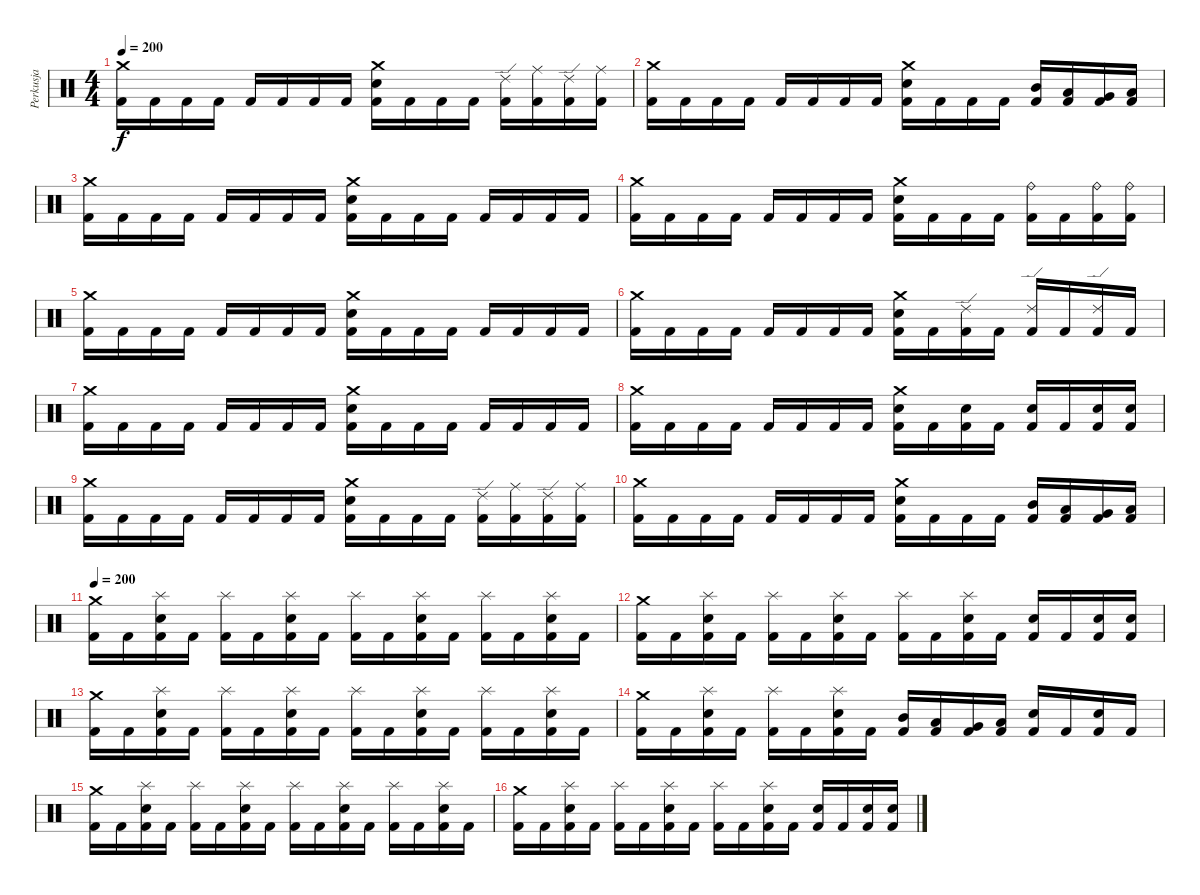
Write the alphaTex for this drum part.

\track ("Perkusja" "Perkusja") {instrument percussion}
\staff {score}
\articulation defaults
\ts (4 4)
\tempo 200
\clef neutral
\ks c
("Crash medium (hit)" "Kick (hit) 2").16{dy f} "Kick (hit) 2".16 "Kick (hit) 2".16 "Kick (hit) 2".16 "Kick (hit) 2".16 "Kick (hit) 2".16 "Kick (hit) 2".16 "Kick (hit) 2".16 ("Crash medium (hit)" "Electric Snare (hit)" "Kick (hit) 2").16 "Kick (hit) 2".16 "Kick (hit) 2".16 "Kick (hit) 2".16 ("Ride (edge) 2" "Kick (hit) 2").16 ("Ride (middle)" "Kick (hit) 2").16 ("Ride (edge) 2" "Kick (hit) 2").16 ("Ride (middle)" "Kick (hit) 2").16 |
("Crash medium (hit)" "Kick (hit) 2").16 "Kick (hit) 2".16 "Kick (hit) 2".16 "Kick (hit) 2".16 "Kick (hit) 2".16 "Kick (hit) 2".16 "Kick (hit) 2".16 "Kick (hit) 2".16 ("Crash medium (hit)" "Electric Snare (hit)" "Kick (hit) 2").16 "Kick (hit) 2".16 "Kick (hit) 2".16 "Kick (hit) 2".16 ("Mid Tom (hit)" "Kick (hit) 2").16 ("Low Tom (hit)" "Kick (hit) 2").16 ("Very Low Tom (hit)" "Kick (hit) 2").16 ("Low Floor Tom (hit)" "Kick (hit) 2").16 |
("Crash medium (hit)" "Kick (hit) 2").16 "Kick (hit) 2".16 "Kick (hit) 2".16 "Kick (hit) 2".16 "Kick (hit) 2".16 "Kick (hit) 2".16 "Kick (hit) 2".16 "Kick (hit) 2".16 ("Crash medium (hit)" "Electric Snare (hit)" "Kick (hit) 2").16 "Kick (hit) 2".16 "Kick (hit) 2".16 "Kick (hit) 2".16 "Kick (hit) 2".16 "Kick (hit) 2".16 "Kick (hit) 2".16 "Kick (hit) 2".16 |
("Crash medium (hit)" "Kick (hit) 2").16 "Kick (hit) 2".16 "Kick (hit) 2".16 "Kick (hit) 2".16 "Kick (hit) 2".16 "Kick (hit) 2".16 "Kick (hit) 2".16 "Kick (hit) 2".16 ("Crash medium (hit)" "Electric Snare (hit)" "Kick (hit) 2").16 "Kick (hit) 2".16 "Kick (hit) 2".16 "Kick (hit) 2".16 ("Ride (bell)" "Kick (hit) 2").16 "Kick (hit) 2".16 ("Ride (bell)" "Kick (hit) 2").16 ("Ride (bell)" "Kick (hit) 2").16 |
("Crash medium (hit)" "Kick (hit) 2").16 "Kick (hit) 2".16 "Kick (hit) 2".16 "Kick (hit) 2".16 "Kick (hit) 2".16 "Kick (hit) 2".16 "Kick (hit) 2".16 "Kick (hit) 2".16 ("Crash medium (hit)" "Electric Snare (hit)" "Kick (hit) 2").16 "Kick (hit) 2".16 "Kick (hit) 2".16 "Kick (hit) 2".16 "Kick (hit) 2".16 "Kick (hit) 2".16 "Kick (hit) 2".16 "Kick (hit) 2".16 |
("Crash medium (hit)" "Kick (hit) 2").16 "Kick (hit) 2".16 "Kick (hit) 2".16 "Kick (hit) 2".16 "Kick (hit) 2".16 "Kick (hit) 2".16 "Kick (hit) 2".16 "Kick (hit) 2".16 ("Crash medium (hit)" "Electric Snare (hit)" "Kick (hit) 2").16 "Kick (hit) 2".16 ("Ride (edge) 2" "Kick (hit) 2").16 "Kick (hit) 2".16 ("Ride (edge) 2" "Kick (hit) 2").16 "Kick (hit) 2".16 ("Ride (edge) 2" "Kick (hit) 2").16 "Kick (hit) 2".16 |
("Crash medium (hit)" "Kick (hit) 2").16 "Kick (hit) 2".16 "Kick (hit) 2".16 "Kick (hit) 2".16 "Kick (hit) 2".16 "Kick (hit) 2".16 "Kick (hit) 2".16 "Kick (hit) 2".16 ("Crash medium (hit)" "Electric Snare (hit)" "Kick (hit) 2").16 "Kick (hit) 2".16 "Kick (hit) 2".16 "Kick (hit) 2".16 "Kick (hit) 2".16 "Kick (hit) 2".16 "Kick (hit) 2".16 "Kick (hit) 2".16 |
("Crash medium (hit)" "Kick (hit) 2").16 "Kick (hit) 2".16 "Kick (hit) 2".16 "Kick (hit) 2".16 "Kick (hit) 2".16 "Kick (hit) 2".16 "Kick (hit) 2".16 "Kick (hit) 2".16 ("Crash medium (hit)" "Electric Snare (hit)" "Kick (hit) 2").16 "Kick (hit) 2".16 ("Electric Snare (hit)" "Kick (hit) 2").16 "Kick (hit) 2".16 ("Electric Snare (hit)" "Kick (hit) 2").16 "Kick (hit) 2".16 ("Electric Snare (hit)" "Kick (hit) 2").16 ("Electric Snare (hit)" "Kick (hit) 2").16 |
("Crash medium (hit)" "Kick (hit) 2").16 "Kick (hit) 2".16 "Kick (hit) 2".16 "Kick (hit) 2".16 "Kick (hit) 2".16 "Kick (hit) 2".16 "Kick (hit) 2".16 "Kick (hit) 2".16 ("Crash medium (hit)" "Electric Snare (hit)" "Kick (hit) 2").16 "Kick (hit) 2".16 "Kick (hit) 2".16 "Kick (hit) 2".16 ("Ride (edge) 2" "Kick (hit) 2").16 ("Ride (middle)" "Kick (hit) 2").16 ("Ride (edge) 2" "Kick (hit) 2").16 ("Ride (middle)" "Kick (hit) 2").16 |
("Crash medium (hit)" "Kick (hit) 2").16 "Kick (hit) 2".16 "Kick (hit) 2".16 "Kick (hit) 2".16 "Kick (hit) 2".16 "Kick (hit) 2".16 "Kick (hit) 2".16 "Kick (hit) 2".16 ("Crash medium (hit)" "Electric Snare (hit)" "Kick (hit) 2").16 "Kick (hit) 2".16 "Kick (hit) 2".16 "Kick (hit) 2".16 ("Mid Tom (hit)" "Kick (hit) 2").16 ("Low Tom (hit)" "Kick (hit) 2").16 ("Very Low Tom (hit)" "Kick (hit) 2").16 ("Low Floor Tom (hit)" "Kick (hit) 2").16 |
\tempo 200
("Crash medium (hit)" "Kick (hit) 2").16 "Kick (hit) 2".16 ("Splash (hit)" "Electric Snare (hit)" "Kick (hit) 2").16 "Kick (hit) 2".16 ("Splash (hit)" "Kick (hit) 2").16 "Kick (hit) 2".16 ("Splash (hit)" "Electric Snare (hit)" "Kick (hit) 2").16 "Kick (hit) 2".16 ("Splash (hit)" "Kick (hit) 2").16 "Kick (hit) 2".16 ("Splash (hit)" "Electric Snare (hit)" "Kick (hit) 2").16 "Kick (hit) 2".16 ("Splash (hit)" "Kick (hit) 2").16 "Kick (hit) 2".16 ("Splash (hit)" "Electric Snare (hit)" "Kick (hit) 2").16 "Kick (hit) 2".16 |
("Crash medium (hit)" "Kick (hit) 2").16 "Kick (hit) 2".16 ("Splash (hit)" "Electric Snare (hit)" "Kick (hit) 2").16 "Kick (hit) 2".16 ("Splash (hit)" "Kick (hit) 2").16 "Kick (hit) 2".16 ("Splash (hit)" "Electric Snare (hit)" "Kick (hit) 2").16 "Kick (hit) 2".16 ("Splash (hit)" "Kick (hit) 2").16 "Kick (hit) 2".16 ("Splash (hit)" "Electric Snare (hit)" "Kick (hit) 2").16 "Kick (hit) 2".16 ("Electric Snare (hit)" "Kick (hit) 2").16 "Kick (hit) 2".16 ("Electric Snare (hit)" "Kick (hit) 2").16 ("Electric Snare (hit)" "Kick (hit) 2").16 |
("Crash medium (hit)" "Kick (hit) 2").16 "Kick (hit) 2".16 ("Splash (hit)" "Electric Snare (hit)" "Kick (hit) 2").16 "Kick (hit) 2".16 ("Splash (hit)" "Kick (hit) 2").16 "Kick (hit) 2".16 ("Splash (hit)" "Electric Snare (hit)" "Kick (hit) 2").16 "Kick (hit) 2".16 ("Splash (hit)" "Kick (hit) 2").16 "Kick (hit) 2".16 ("Splash (hit)" "Electric Snare (hit)" "Kick (hit) 2").16 "Kick (hit) 2".16 ("Splash (hit)" "Kick (hit) 2").16 "Kick (hit) 2".16 ("Splash (hit)" "Electric Snare (hit)" "Kick (hit) 2").16 "Kick (hit) 2".16 |
("Crash medium (hit)" "Kick (hit) 2").16 "Kick (hit) 2".16 ("Splash (hit)" "Electric Snare (hit)" "Kick (hit) 2").16 "Kick (hit) 2".16 ("Splash (hit)" "Kick (hit) 2").16 "Kick (hit) 2".16 ("Splash (hit)" "Electric Snare (hit)" "Kick (hit) 2").16 "Kick (hit) 2".16 ("Mid Tom (hit)" "Kick (hit) 2").16 ("Low Tom (hit)" "Kick (hit) 2").16 ("Very Low Tom (hit)" "Kick (hit) 2").16 ("Low Floor Tom (hit)" "Kick (hit) 2").16 ("Electric Snare (hit)" "Kick (hit) 2").16 "Kick (hit) 2".16 ("Electric Snare (hit)" "Kick (hit) 2").16 "Kick (hit) 2".16 |
("Crash medium (hit)" "Kick (hit) 2").16 "Kick (hit) 2".16 ("Splash (hit)" "Electric Snare (hit)" "Kick (hit) 2").16 "Kick (hit) 2".16 ("Splash (hit)" "Kick (hit) 2").16 "Kick (hit) 2".16 ("Splash (hit)" "Electric Snare (hit)" "Kick (hit) 2").16 "Kick (hit) 2".16 ("Splash (hit)" "Kick (hit) 2").16 "Kick (hit) 2".16 ("Splash (hit)" "Electric Snare (hit)" "Kick (hit) 2").16 "Kick (hit) 2".16 ("Splash (hit)" "Kick (hit) 2").16 "Kick (hit) 2".16 ("Splash (hit)" "Electric Snare (hit)" "Kick (hit) 2").16 "Kick (hit) 2".16 |
("Crash medium (hit)" "Kick (hit) 2").16 "Kick (hit) 2".16 ("Splash (hit)" "Electric Snare (hit)" "Kick (hit) 2").16 "Kick (hit) 2".16 ("Splash (hit)" "Kick (hit) 2").16 "Kick (hit) 2".16 ("Splash (hit)" "Electric Snare (hit)" "Kick (hit) 2").16 "Kick (hit) 2".16 ("Splash (hit)" "Kick (hit) 2").16 "Kick (hit) 2".16 ("Splash (hit)" "Electric Snare (hit)" "Kick (hit) 2").16 "Kick (hit) 2".16 ("Electric Snare (hit)" "Kick (hit) 2").16 "Kick (hit) 2".16 ("Electric Snare (hit)" "Kick (hit) 2").16 ("Electric Snare (hit)" "Kick (hit) 2").16
